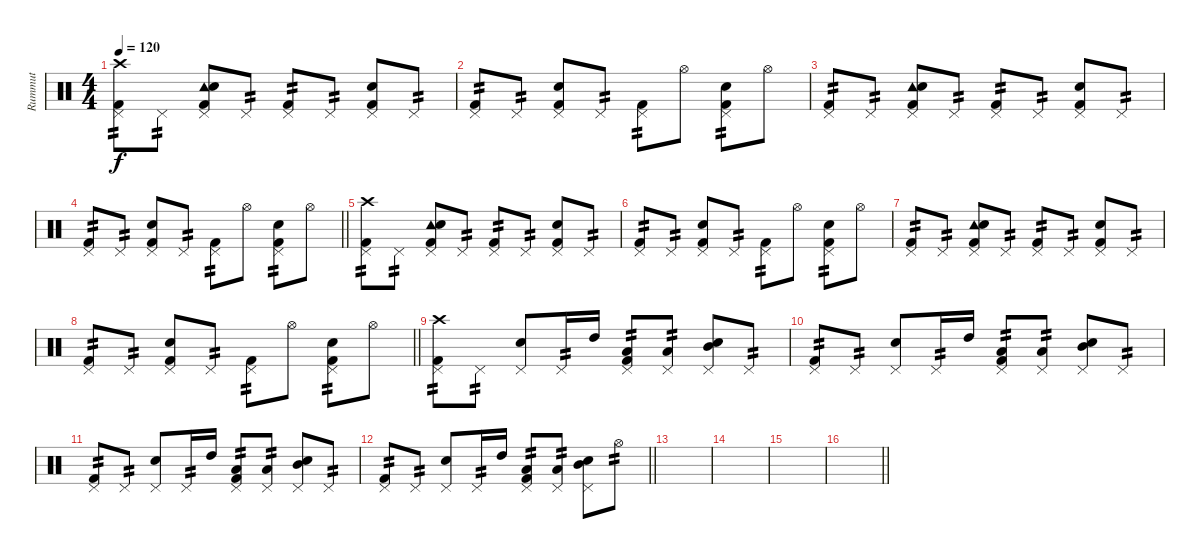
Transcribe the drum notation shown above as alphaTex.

\track ("Rummut" "Rummut") {instrument percussion}
\staff {score}
\articulation defaults
\ts (4 4)
\tempo 120
\clef neutral
\ks c
("Crash high (hit)" "Pedal Hi-Hat (hit)" "Kick (hit) 2").8{tp 2 dy f} "Pedal Hi-Hat (hit)".8{tp 2} ("Tambourine (hit)" "Pedal Hi-Hat (hit)" "Snare (hit) 2" "Kick (hit) 2").8 "Pedal Hi-Hat (hit)".8{tp 2} ("Pedal Hi-Hat (hit)" "Kick (hit) 2").8{tp 2} "Pedal Hi-Hat (hit)".8{tp 2} ("Pedal Hi-Hat (hit)" "Snare (hit) 2" "Kick (hit) 2").8 "Pedal Hi-Hat (hit)".8{tp 2} |
("Pedal Hi-Hat (hit)" "Kick (hit) 2").8{tp 2} "Pedal Hi-Hat (hit)".8{tp 2} ("Pedal Hi-Hat (hit)" "Snare (hit) 2" "Kick (hit) 2").8 "Pedal Hi-Hat (hit)".8{tp 2} ("Pedal Hi-Hat (hit)" "Kick (hit) 2").8{tp 2} "Hi-Hat (open)".8 ("Pedal Hi-Hat (hit)" "Snare (hit) 2" "Kick (hit) 2").8{tp 2} "Hi-Hat (open)".8 |
("Pedal Hi-Hat (hit)" "Kick (hit) 2").8{tp 2} "Pedal Hi-Hat (hit)".8{tp 2} ("Tambourine (hit)" "Pedal Hi-Hat (hit)" "Snare (hit) 2" "Kick (hit) 2").8 "Pedal Hi-Hat (hit)".8{tp 2} ("Pedal Hi-Hat (hit)" "Kick (hit) 2").8{tp 2} "Pedal Hi-Hat (hit)".8{tp 2} ("Pedal Hi-Hat (hit)" "Snare (hit) 2" "Kick (hit) 2").8 "Pedal Hi-Hat (hit)".8{tp 2} |
\barLineRight lightlight
("Pedal Hi-Hat (hit)" "Kick (hit) 2").8{tp 2} "Pedal Hi-Hat (hit)".8{tp 2} ("Pedal Hi-Hat (hit)" "Snare (hit) 2" "Kick (hit) 2").8 "Pedal Hi-Hat (hit)".8{tp 2} ("Pedal Hi-Hat (hit)" "Kick (hit) 2").8{tp 2} "Hi-Hat (open)".8 ("Pedal Hi-Hat (hit)" "Snare (hit) 2" "Kick (hit) 2").8{tp 2} "Hi-Hat (open)".8 |
("Crash high (hit)" "Pedal Hi-Hat (hit)" "Kick (hit) 2").8{tp 2} "Pedal Hi-Hat (hit)".8{tp 2} ("Tambourine (hit)" "Pedal Hi-Hat (hit)" "Snare (hit) 2" "Kick (hit) 2").8 "Pedal Hi-Hat (hit)".8{tp 2} ("Pedal Hi-Hat (hit)" "Kick (hit) 2").8{tp 2} "Pedal Hi-Hat (hit)".8{tp 2} ("Pedal Hi-Hat (hit)" "Snare (hit) 2" "Kick (hit) 2").8 "Pedal Hi-Hat (hit)".8{tp 2} |
("Pedal Hi-Hat (hit)" "Kick (hit) 2").8{tp 2} "Pedal Hi-Hat (hit)".8{tp 2} ("Pedal Hi-Hat (hit)" "Snare (hit) 2" "Kick (hit) 2").8 "Pedal Hi-Hat (hit)".8{tp 2} ("Pedal Hi-Hat (hit)" "Kick (hit) 2").8{tp 2} "Hi-Hat (open)".8 ("Pedal Hi-Hat (hit)" "Snare (hit) 2" "Kick (hit) 2").8{tp 2} "Hi-Hat (open)".8 |
("Pedal Hi-Hat (hit)" "Kick (hit) 2").8{tp 2} "Pedal Hi-Hat (hit)".8{tp 2} ("Tambourine (hit)" "Pedal Hi-Hat (hit)" "Snare (hit) 2" "Kick (hit) 2").8 "Pedal Hi-Hat (hit)".8{tp 2} ("Pedal Hi-Hat (hit)" "Kick (hit) 2").8{tp 2} "Pedal Hi-Hat (hit)".8{tp 2} ("Pedal Hi-Hat (hit)" "Snare (hit) 2" "Kick (hit) 2").8 "Pedal Hi-Hat (hit)".8{tp 2} |
\barLineRight lightlight
("Pedal Hi-Hat (hit)" "Kick (hit) 2").8{tp 2} "Pedal Hi-Hat (hit)".8{tp 2} ("Pedal Hi-Hat (hit)" "Snare (hit) 2" "Kick (hit) 2").8 "Pedal Hi-Hat (hit)".8{tp 2} ("Pedal Hi-Hat (hit)" "Kick (hit) 2").8{tp 2} "Hi-Hat (open)".8 ("Pedal Hi-Hat (hit)" "Snare (hit) 2" "Kick (hit) 2").8{tp 2} "Hi-Hat (open)".8 |
("Crash high (hit)" "Pedal Hi-Hat (hit)" "Kick (hit) 2").8{tp 2} "Pedal Hi-Hat (hit)".8{tp 2} ("Pedal Hi-Hat (hit)" "Snare (hit) 2").8 "Pedal Hi-Hat (hit)".16{tp 2} "High Tom (hit)".16 ("Low Tom (hit)" "Pedal Hi-Hat (hit)" "Kick (hit) 2").8{tp 2} ("Low Tom (hit)" "Pedal Hi-Hat (hit)").8{tp 2} ("Mid Tom (hit)" "Pedal Hi-Hat (hit)" "Snare (hit) 2").8 "Pedal Hi-Hat (hit)".8{tp 2} |
("Pedal Hi-Hat (hit)" "Kick (hit) 2").8{tp 2} "Pedal Hi-Hat (hit)".8{tp 2} ("Pedal Hi-Hat (hit)" "Snare (hit) 2").8 "Pedal Hi-Hat (hit)".16{tp 2} "High Tom (hit)".16 ("Low Tom (hit)" "Pedal Hi-Hat (hit)" "Kick (hit) 2").8{tp 2} ("Low Tom (hit)" "Pedal Hi-Hat (hit)").8{tp 2} ("Mid Tom (hit)" "Pedal Hi-Hat (hit)" "Snare (hit) 2").8 "Pedal Hi-Hat (hit)".8{tp 2} |
("Pedal Hi-Hat (hit)" "Kick (hit) 2").8{tp 2} "Pedal Hi-Hat (hit)".8{tp 2} ("Pedal Hi-Hat (hit)" "Snare (hit) 2").8 "Pedal Hi-Hat (hit)".16{tp 2} "High Tom (hit)".16 ("Low Tom (hit)" "Pedal Hi-Hat (hit)" "Kick (hit) 2").8{tp 2} ("Low Tom (hit)" "Pedal Hi-Hat (hit)").8{tp 2} ("Mid Tom (hit)" "Pedal Hi-Hat (hit)" "Snare (hit) 2").8 "Pedal Hi-Hat (hit)".8{tp 2} |
\barLineRight lightlight
("Pedal Hi-Hat (hit)" "Kick (hit) 2").8{tp 2} "Pedal Hi-Hat (hit)".8{tp 2} ("Pedal Hi-Hat (hit)" "Snare (hit) 2").8 "Pedal Hi-Hat (hit)".16{tp 2} "High Tom (hit)".16 ("Low Tom (hit)" "Pedal Hi-Hat (hit)" "Kick (hit) 2").8{tp 2} ("Low Tom (hit)" "Pedal Hi-Hat (hit)").8{tp 2} ("Mid Tom (hit)" "Pedal Hi-Hat (hit)" "Snare (hit) 2").8 "Hi-Hat (open)".8{tp 2} |
|
|
|
\barLineRight lightlight
